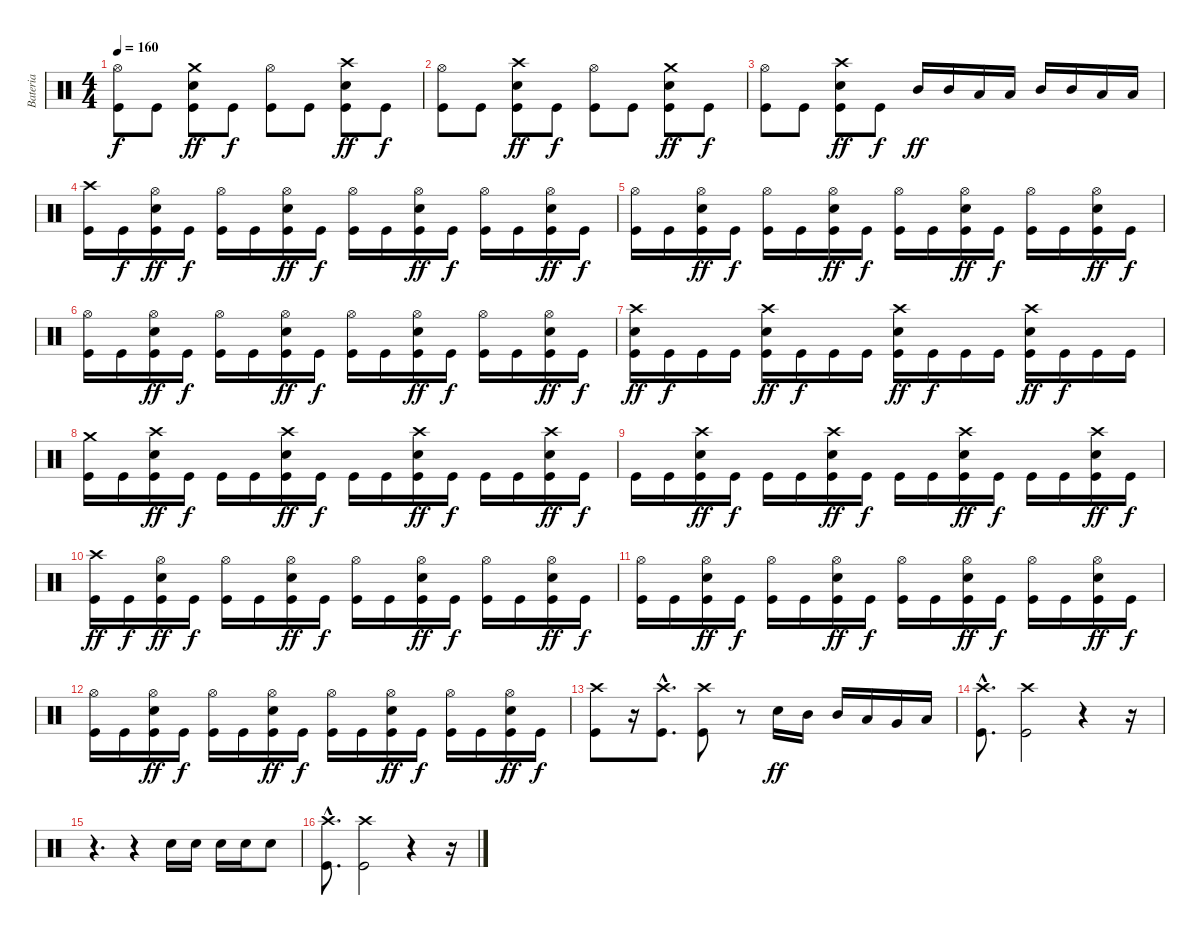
\track ("Bateria" "Bateria") {instrument percussion}
\staff {score}
\articulation defaults
\ts (4 4)
\tempo 160
\clef neutral
\ks c
("Kick (hit)" "Hi-Hat (open)").8{dy f} "Kick (hit)".8 ("Kick (hit)" "Electric Snare (hit)" "Crash medium (hit)").8{dy ff} "Kick (hit)".8{dy f} ("Kick (hit)" "Hi-Hat (open)").8 "Kick (hit)".8 ("Kick (hit)" "Electric Snare (hit)" "Crash high (hit)").8{dy ff} "Kick (hit)".8{dy f} |
("Kick (hit)" "Hi-Hat (open)").8 "Kick (hit)".8 ("Kick (hit)" "Electric Snare (hit)" "Crash high (hit)").8{dy ff} "Kick (hit)".8{dy f} ("Kick (hit)" "Hi-Hat (open)").8 "Kick (hit)".8 ("Kick (hit)" "Electric Snare (hit)" "Crash medium (hit)").8{dy ff} "Kick (hit)".8{dy f} |
("Kick (hit)" "Hi-Hat (open)").8 "Kick (hit)".8 ("Kick (hit)" "Electric Snare (hit)" "Crash high (hit)").8{dy ff} "Kick (hit)".8{dy f} "Mid Tom (hit)".16{dy ff} "Mid Tom (hit)".16 "Low Tom (hit)".16 "Low Tom (hit)".16 "Mid Tom (hit)".16 "Mid Tom (hit)".16 "Low Tom (hit)".16 "Low Tom (hit)".16 |
("Kick (hit)" "Crash high (hit)").16 "Kick (hit)".16{dy f} ("Kick (hit)" "Electric Snare (hit)" "Hi-Hat (open)").16{dy ff} "Kick (hit)".16{dy f} ("Kick (hit)" "Hi-Hat (open)").16 "Kick (hit)".16 ("Kick (hit)" "Electric Snare (hit)" "Hi-Hat (open)").16{dy ff} "Kick (hit)".16{dy f} ("Kick (hit)" "Hi-Hat (open)").16 "Kick (hit)".16 ("Kick (hit)" "Electric Snare (hit)" "Hi-Hat (open)").16{dy ff} "Kick (hit)".16{dy f} ("Kick (hit)" "Hi-Hat (open)").16 "Kick (hit)".16 ("Kick (hit)" "Electric Snare (hit)" "Hi-Hat (open)").16{dy ff} "Kick (hit)".16{dy f} |
("Kick (hit)" "Hi-Hat (open)").16 "Kick (hit)".16 ("Kick (hit)" "Electric Snare (hit)" "Hi-Hat (open)").16{dy ff} "Kick (hit)".16{dy f} ("Kick (hit)" "Hi-Hat (open)").16 "Kick (hit)".16 ("Kick (hit)" "Electric Snare (hit)" "Hi-Hat (open)").16{dy ff} "Kick (hit)".16{dy f} ("Kick (hit)" "Hi-Hat (open)").16 "Kick (hit)".16 ("Kick (hit)" "Electric Snare (hit)" "Hi-Hat (open)").16{dy ff} "Kick (hit)".16{dy f} ("Kick (hit)" "Hi-Hat (open)").16 "Kick (hit)".16 ("Kick (hit)" "Electric Snare (hit)" "Hi-Hat (open)").16{dy ff} "Kick (hit)".16{dy f} |
("Kick (hit)" "Hi-Hat (open)").16 "Kick (hit)".16 ("Kick (hit)" "Electric Snare (hit)" "Hi-Hat (open)").16{dy ff} "Kick (hit)".16{dy f} ("Kick (hit)" "Hi-Hat (open)").16 "Kick (hit)".16 ("Kick (hit)" "Electric Snare (hit)" "Hi-Hat (open)").16{dy ff} "Kick (hit)".16{dy f} ("Kick (hit)" "Hi-Hat (open)").16 "Kick (hit)".16 ("Kick (hit)" "Electric Snare (hit)" "Hi-Hat (open)").16{dy ff} "Kick (hit)".16{dy f} ("Kick (hit)" "Hi-Hat (open)").16 "Kick (hit)".16 ("Kick (hit)" "Electric Snare (hit)" "Hi-Hat (open)").16{dy ff} "Kick (hit)".16{dy f} |
("Kick (hit)" "Electric Snare (hit)" "Crash high (hit)").16{dy ff} "Kick (hit)".16{dy f} "Kick (hit)".16 "Kick (hit)".16 ("Kick (hit)" "Electric Snare (hit)" "Crash high (hit)").16{dy ff} "Kick (hit)".16{dy f} "Kick (hit)".16 "Kick (hit)".16 ("Kick (hit)" "Electric Snare (hit)" "Crash high (hit)").16{dy ff} "Kick (hit)".16{dy f} "Kick (hit)".16 "Kick (hit)".16 ("Kick (hit)" "Electric Snare (hit)" "Crash high (hit)").16{dy ff} "Kick (hit)".16{dy f} "Kick (hit)".16 "Kick (hit)".16 |
("Kick (hit)" "Crash medium (hit)").16 "Kick (hit)".16 ("Kick (hit)" "Electric Snare (hit)" "Crash high (hit)").16{dy ff} "Kick (hit)".16{dy f} "Kick (hit)".16 "Kick (hit)".16 ("Kick (hit)" "Electric Snare (hit)" "Crash high (hit)").16{dy ff} "Kick (hit)".16{dy f} "Kick (hit)".16 "Kick (hit)".16 ("Kick (hit)" "Electric Snare (hit)" "Crash high (hit)").16{dy ff} "Kick (hit)".16{dy f} "Kick (hit)".16 "Kick (hit)".16 ("Kick (hit)" "Electric Snare (hit)" "Crash high (hit)").16{dy ff} "Kick (hit)".16{dy f} |
"Kick (hit)".16 "Kick (hit)".16 ("Kick (hit)" "Electric Snare (hit)" "Crash high (hit)").16{dy ff} "Kick (hit)".16{dy f} "Kick (hit)".16 "Kick (hit)".16 ("Kick (hit)" "Electric Snare (hit)" "Crash high (hit)").16{dy ff} "Kick (hit)".16{dy f} "Kick (hit)".16 "Kick (hit)".16 ("Kick (hit)" "Electric Snare (hit)" "Crash high (hit)").16{dy ff} "Kick (hit)".16{dy f} "Kick (hit)".16 "Kick (hit)".16 ("Kick (hit)" "Electric Snare (hit)" "Crash high (hit)").16{dy ff} "Kick (hit)".16{dy f} |
("Kick (hit)" "Crash high (hit)").16{dy ff} "Kick (hit)".16{dy f} ("Kick (hit)" "Electric Snare (hit)" "Hi-Hat (open)").16{dy ff} "Kick (hit)".16{dy f} ("Kick (hit)" "Hi-Hat (open)").16 "Kick (hit)".16 ("Kick (hit)" "Electric Snare (hit)" "Hi-Hat (open)").16{dy ff} "Kick (hit)".16{dy f} ("Kick (hit)" "Hi-Hat (open)").16 "Kick (hit)".16 ("Kick (hit)" "Electric Snare (hit)" "Hi-Hat (open)").16{dy ff} "Kick (hit)".16{dy f} ("Kick (hit)" "Hi-Hat (open)").16 "Kick (hit)".16 ("Kick (hit)" "Electric Snare (hit)" "Hi-Hat (open)").16{dy ff} "Kick (hit)".16{dy f} |
("Kick (hit)" "Hi-Hat (open)").16 "Kick (hit)".16 ("Kick (hit)" "Electric Snare (hit)" "Hi-Hat (open)").16{dy ff} "Kick (hit)".16{dy f} ("Kick (hit)" "Hi-Hat (open)").16 "Kick (hit)".16 ("Kick (hit)" "Electric Snare (hit)" "Hi-Hat (open)").16{dy ff} "Kick (hit)".16{dy f} ("Kick (hit)" "Hi-Hat (open)").16 "Kick (hit)".16 ("Kick (hit)" "Electric Snare (hit)" "Hi-Hat (open)").16{dy ff} "Kick (hit)".16{dy f} ("Kick (hit)" "Hi-Hat (open)").16 "Kick (hit)".16 ("Kick (hit)" "Electric Snare (hit)" "Hi-Hat (open)").16{dy ff} "Kick (hit)".16{dy f} |
("Kick (hit)" "Hi-Hat (open)").16 "Kick (hit)".16 ("Kick (hit)" "Electric Snare (hit)" "Hi-Hat (open)").16{dy ff} "Kick (hit)".16{dy f} ("Kick (hit)" "Hi-Hat (open)").16 "Kick (hit)".16 ("Kick (hit)" "Electric Snare (hit)" "Hi-Hat (open)").16{dy ff} "Kick (hit)".16{dy f} ("Kick (hit)" "Hi-Hat (open)").16 "Kick (hit)".16 ("Kick (hit)" "Electric Snare (hit)" "Hi-Hat (open)").16{dy ff} "Kick (hit)".16{dy f} ("Kick (hit)" "Hi-Hat (open)").16 "Kick (hit)".16 ("Kick (hit)" "Electric Snare (hit)" "Hi-Hat (open)").16{dy ff} "Kick (hit)".16{dy f} |
("Kick (hit)" "Crash high (hit)").8 r.16 ("Kick (hit)"{hac} "Crash high (hit)"{hac}).8{d} ("Kick (hit)" "Crash high (hit)").8 r.8 "Electric Snare (hit)".16{dy ff} "Mid Tom (hit)".16 "Mid Tom (hit)".16 "Low Tom (hit)".16 "Very Low Tom (hit)".16 "Low Floor Tom (hit)".16 |
("Kick (hit)"{hac} "Crash high (hit)"{hac}).8{d} ("Kick (hit)" "Crash high (hit)").2 r.4 r.16 |
r.4{d} r.4 "Electric Snare (hit)".16 "Electric Snare (hit)".16 "Electric Snare (hit)".16 "Electric Snare (hit)".16 "Electric Snare (hit)".8 |
("Kick (hit)"{hac} "Crash high (hit)"{hac}).8{d} ("Kick (hit)" "Crash high (hit)").2 r.4 r.16
